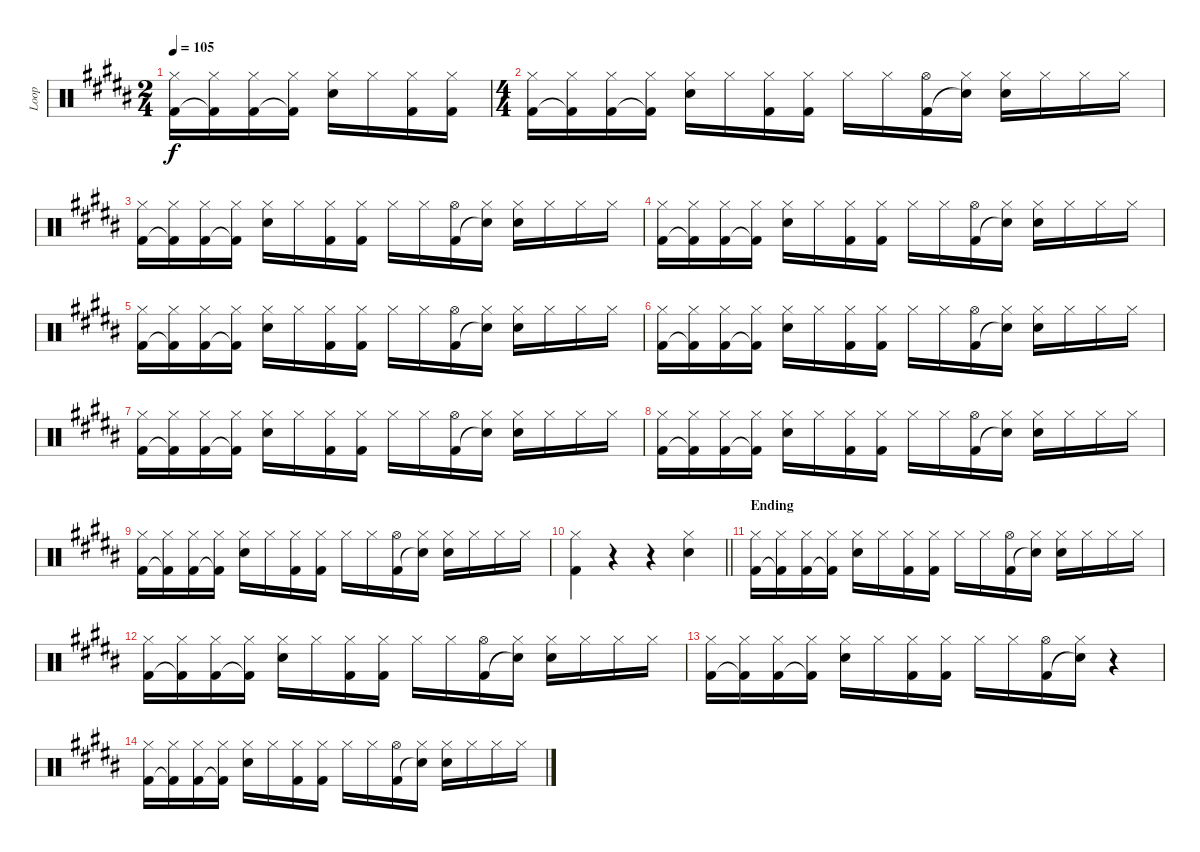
\track ("Loop" "Loop") {instrument percussion}
\staff {score}
\articulation defaults
\ts (2 4)
\tempo 105
\clef neutral
\ks g#minor
("Hi-Hat (closed)" "Kick (hit) 2").16{dy f} ("Hi-Hat (closed)" "Kick (hit) 2"{t}).16 ("Hi-Hat (closed)" "Kick (hit) 2").16 ("Hi-Hat (closed)" "Kick (hit) 2"{t}).16 ("Hi-Hat (closed)" "Electric Snare (hit)").16 "Hi-Hat (closed)".16 ("Hi-Hat (closed)" "Kick (hit) 2").16 ("Hi-Hat (closed)" "Kick (hit) 2").16 |
\ts (4 4)
("Hi-Hat (closed)" "Kick (hit) 2").16 ("Hi-Hat (closed)" "Kick (hit) 2"{t}).16 ("Hi-Hat (closed)" "Kick (hit) 2").16 ("Hi-Hat (closed)" "Kick (hit) 2"{t}).16 ("Hi-Hat (closed)" "Electric Snare (hit)").16 "Hi-Hat (closed)".16 ("Hi-Hat (closed)" "Kick (hit) 2").16 ("Hi-Hat (closed)" "Kick (hit) 2").16 "Hi-Hat (closed)".16 "Hi-Hat (closed)".16 ("Hi-Hat (open)" "Kick (hit) 2").16 ("Hi-Hat (closed)" "Snare (hit)"{t}).16 ("Hi-Hat (closed)" "Electric Snare (hit)").16 "Hi-Hat (closed)".16 "Hi-Hat (closed)".16 "Hi-Hat (closed)".16 |
("Hi-Hat (closed)" "Kick (hit) 2").16 ("Hi-Hat (closed)" "Kick (hit) 2"{t}).16 ("Hi-Hat (closed)" "Kick (hit) 2").16 ("Hi-Hat (closed)" "Kick (hit) 2"{t}).16 ("Hi-Hat (closed)" "Electric Snare (hit)").16 "Hi-Hat (closed)".16 ("Hi-Hat (closed)" "Kick (hit) 2").16 ("Hi-Hat (closed)" "Kick (hit) 2").16 "Hi-Hat (closed)".16 "Hi-Hat (closed)".16 ("Hi-Hat (open)" "Kick (hit) 2").16 ("Hi-Hat (closed)" "Snare (hit)"{t}).16 ("Hi-Hat (closed)" "Electric Snare (hit)").16 "Hi-Hat (closed)".16 "Hi-Hat (closed)".16 "Hi-Hat (closed)".16 |
("Hi-Hat (closed)" "Kick (hit) 2").16 ("Hi-Hat (closed)" "Kick (hit) 2"{t}).16 ("Hi-Hat (closed)" "Kick (hit) 2").16 ("Hi-Hat (closed)" "Kick (hit) 2"{t}).16 ("Hi-Hat (closed)" "Electric Snare (hit)").16 "Hi-Hat (closed)".16 ("Hi-Hat (closed)" "Kick (hit) 2").16 ("Hi-Hat (closed)" "Kick (hit) 2").16 "Hi-Hat (closed)".16 "Hi-Hat (closed)".16 ("Hi-Hat (open)" "Kick (hit) 2").16 ("Hi-Hat (closed)" "Snare (hit)"{t}).16 ("Hi-Hat (closed)" "Electric Snare (hit)").16 "Hi-Hat (closed)".16 "Hi-Hat (closed)".16 "Hi-Hat (closed)".16 |
("Hi-Hat (closed)" "Kick (hit) 2").16 ("Hi-Hat (closed)" "Kick (hit) 2"{t}).16 ("Hi-Hat (closed)" "Kick (hit) 2").16 ("Hi-Hat (closed)" "Kick (hit) 2"{t}).16 ("Hi-Hat (closed)" "Electric Snare (hit)").16 "Hi-Hat (closed)".16 ("Hi-Hat (closed)" "Kick (hit) 2").16 ("Hi-Hat (closed)" "Kick (hit) 2").16 "Hi-Hat (closed)".16 "Hi-Hat (closed)".16 ("Hi-Hat (open)" "Kick (hit) 2").16 ("Hi-Hat (closed)" "Snare (hit)"{t}).16 ("Hi-Hat (closed)" "Electric Snare (hit)").16 "Hi-Hat (closed)".16 "Hi-Hat (closed)".16 "Hi-Hat (closed)".16 |
("Hi-Hat (closed)" "Kick (hit) 2").16 ("Hi-Hat (closed)" "Kick (hit) 2"{t}).16 ("Hi-Hat (closed)" "Kick (hit) 2").16 ("Hi-Hat (closed)" "Kick (hit) 2"{t}).16 ("Hi-Hat (closed)" "Electric Snare (hit)").16 "Hi-Hat (closed)".16 ("Hi-Hat (closed)" "Kick (hit) 2").16 ("Hi-Hat (closed)" "Kick (hit) 2").16 "Hi-Hat (closed)".16 "Hi-Hat (closed)".16 ("Hi-Hat (open)" "Kick (hit) 2").16 ("Hi-Hat (closed)" "Snare (hit)"{t}).16 ("Hi-Hat (closed)" "Electric Snare (hit)").16 "Hi-Hat (closed)".16 "Hi-Hat (closed)".16 "Hi-Hat (closed)".16 |
("Hi-Hat (closed)" "Kick (hit) 2").16 ("Hi-Hat (closed)" "Kick (hit) 2"{t}).16 ("Hi-Hat (closed)" "Kick (hit) 2").16 ("Hi-Hat (closed)" "Kick (hit) 2"{t}).16 ("Hi-Hat (closed)" "Electric Snare (hit)").16 "Hi-Hat (closed)".16 ("Hi-Hat (closed)" "Kick (hit) 2").16 ("Hi-Hat (closed)" "Kick (hit) 2").16 "Hi-Hat (closed)".16 "Hi-Hat (closed)".16 ("Hi-Hat (open)" "Kick (hit) 2").16 ("Hi-Hat (closed)" "Snare (hit)"{t}).16 ("Hi-Hat (closed)" "Electric Snare (hit)").16 "Hi-Hat (closed)".16 "Hi-Hat (closed)".16 "Hi-Hat (closed)".16 |
("Hi-Hat (closed)" "Kick (hit) 2").16 ("Hi-Hat (closed)" "Kick (hit) 2"{t}).16 ("Hi-Hat (closed)" "Kick (hit) 2").16 ("Hi-Hat (closed)" "Kick (hit) 2"{t}).16 ("Hi-Hat (closed)" "Electric Snare (hit)").16 "Hi-Hat (closed)".16 ("Hi-Hat (closed)" "Kick (hit) 2").16 ("Hi-Hat (closed)" "Kick (hit) 2").16 "Hi-Hat (closed)".16 "Hi-Hat (closed)".16 ("Hi-Hat (open)" "Kick (hit) 2").16 ("Hi-Hat (closed)" "Snare (hit)"{t}).16 ("Hi-Hat (closed)" "Electric Snare (hit)").16 "Hi-Hat (closed)".16 "Hi-Hat (closed)".16 "Hi-Hat (closed)".16 |
("Hi-Hat (closed)" "Kick (hit) 2").16 ("Hi-Hat (closed)" "Kick (hit) 2"{t}).16 ("Hi-Hat (closed)" "Kick (hit) 2").16 ("Hi-Hat (closed)" "Kick (hit) 2"{t}).16 ("Hi-Hat (closed)" "Electric Snare (hit)").16 "Hi-Hat (closed)".16 ("Hi-Hat (closed)" "Kick (hit) 2").16 ("Hi-Hat (closed)" "Kick (hit) 2").16 "Hi-Hat (closed)".16 "Hi-Hat (closed)".16 ("Hi-Hat (open)" "Kick (hit) 2").16 ("Hi-Hat (closed)" "Snare (hit)"{t}).16 ("Hi-Hat (closed)" "Electric Snare (hit)").16 "Hi-Hat (closed)".16 "Hi-Hat (closed)".16 "Hi-Hat (closed)".16 |
\barLineRight lightlight
("Hi-Hat (closed)" "Kick (hit) 2").4 r.4 r.4 ("Hi-Hat (closed)" "Electric Snare (hit)").4 |
\section ("" "Ending")
("Hi-Hat (closed)" "Kick (hit) 2").16 ("Hi-Hat (closed)" "Kick (hit) 2"{t}).16 ("Hi-Hat (closed)" "Kick (hit) 2").16 ("Hi-Hat (closed)" "Kick (hit) 2"{t}).16 ("Hi-Hat (closed)" "Electric Snare (hit)").16 "Hi-Hat (closed)".16 ("Hi-Hat (closed)" "Kick (hit) 2").16 ("Hi-Hat (closed)" "Kick (hit) 2").16 "Hi-Hat (closed)".16 "Hi-Hat (closed)".16 ("Hi-Hat (open)" "Kick (hit) 2").16 ("Hi-Hat (closed)" "Snare (hit)"{t}).16 ("Hi-Hat (closed)" "Electric Snare (hit)").16 "Hi-Hat (closed)".16 "Hi-Hat (closed)".16 "Hi-Hat (closed)".16 |
("Hi-Hat (closed)" "Kick (hit) 2").16 ("Hi-Hat (closed)" "Kick (hit) 2"{t}).16 ("Hi-Hat (closed)" "Kick (hit) 2").16 ("Hi-Hat (closed)" "Kick (hit) 2"{t}).16 ("Hi-Hat (closed)" "Electric Snare (hit)").16 "Hi-Hat (closed)".16 ("Hi-Hat (closed)" "Kick (hit) 2").16 ("Hi-Hat (closed)" "Kick (hit) 2").16 "Hi-Hat (closed)".16 "Hi-Hat (closed)".16 ("Hi-Hat (open)" "Kick (hit) 2").16 ("Hi-Hat (closed)" "Snare (hit)"{t}).16 ("Hi-Hat (closed)" "Electric Snare (hit)").16 "Hi-Hat (closed)".16 "Hi-Hat (closed)".16 "Hi-Hat (closed)".16 |
("Hi-Hat (closed)" "Kick (hit) 2").16 ("Hi-Hat (closed)" "Kick (hit) 2"{t}).16 ("Hi-Hat (closed)" "Kick (hit) 2").16 ("Hi-Hat (closed)" "Kick (hit) 2"{t}).16 ("Hi-Hat (closed)" "Electric Snare (hit)").16 "Hi-Hat (closed)".16 ("Hi-Hat (closed)" "Kick (hit) 2").16 ("Hi-Hat (closed)" "Kick (hit) 2").16 "Hi-Hat (closed)".16 "Hi-Hat (closed)".16 ("Hi-Hat (open)" "Kick (hit) 2").16 ("Hi-Hat (closed)" "Snare (hit)"{t}).16 r.4 |
("Hi-Hat (closed)" "Kick (hit) 2").16 ("Hi-Hat (closed)" "Kick (hit) 2"{t}).16 ("Hi-Hat (closed)" "Kick (hit) 2").16 ("Hi-Hat (closed)" "Kick (hit) 2"{t}).16 ("Hi-Hat (closed)" "Electric Snare (hit)").16 "Hi-Hat (closed)".16 ("Hi-Hat (closed)" "Kick (hit) 2").16 ("Hi-Hat (closed)" "Kick (hit) 2").16 "Hi-Hat (closed)".16 "Hi-Hat (closed)".16 ("Hi-Hat (open)" "Kick (hit) 2").16 ("Hi-Hat (closed)" "Snare (hit)"{t}).16 ("Hi-Hat (closed)" "Electric Snare (hit)").16 "Hi-Hat (closed)".16 "Hi-Hat (closed)".16 "Hi-Hat (closed)".16
